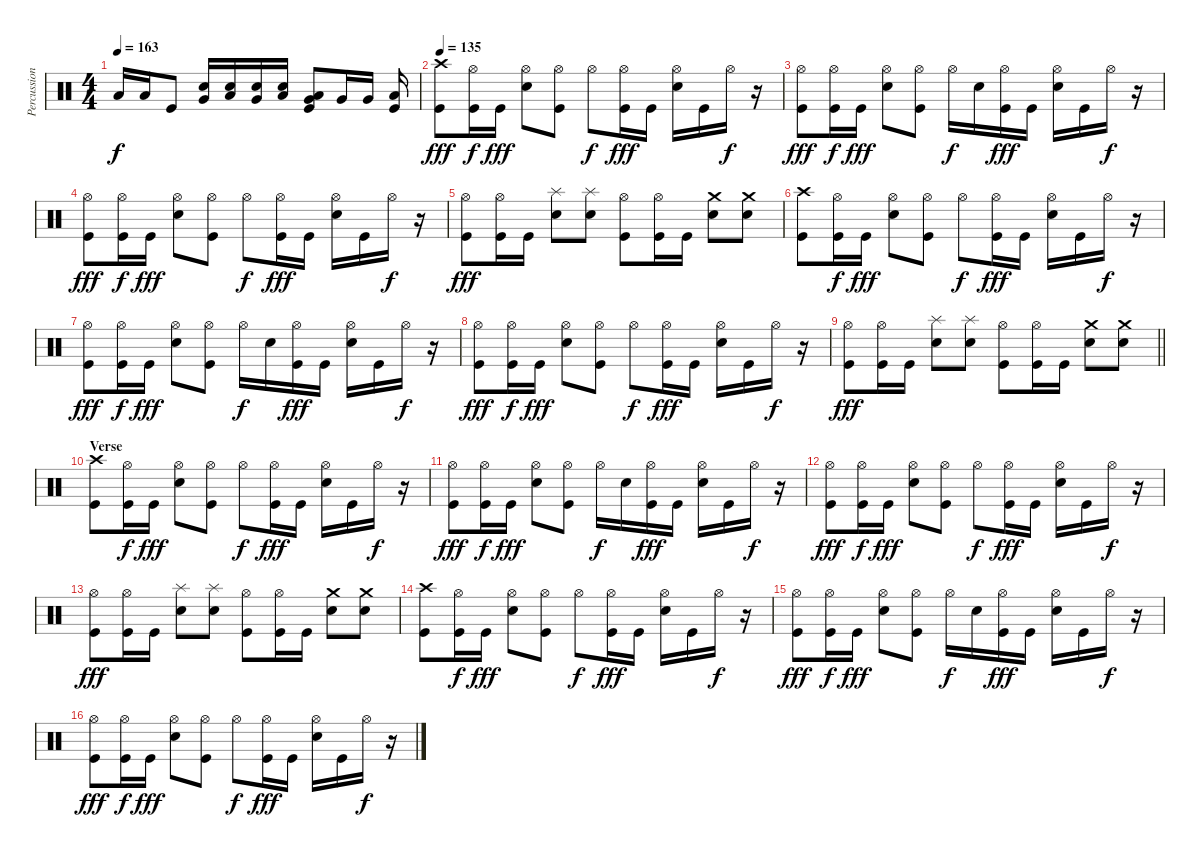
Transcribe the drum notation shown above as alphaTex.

\track ("Percussion/Nicko McBrain" "Percussion") {instrument percussion}
\staff {score}
\articulation defaults
\ts (4 4)
\tempo 163
\clef neutral
\ks c "Low Floor Tom (hit)".16{dy f} "Low Floor Tom (hit)".16 "Kick (hit)".8
("Electric Snare (hit)" "Very Low Tom (hit)").16 ("Electric Snare (hit)" "Low Floor Tom (hit)").16 ("Snare (hit) 2" "Very Low Tom (hit)").16 ("Snare (hit) 2" "Low Floor Tom (hit)").16 ("Low Floor Tom (hit)" "Very Low Tom (hit)" "Kick (hit)").8 "Very Low Tom (hit)".16 "Very Low Tom (hit)".16 ("Low Floor Tom (hit)" "Kick (hit)").16 |
\tempo 135
("Crash high (hit)" "Kick (hit)").8{dy fff} ("Hi-Hat (open)" "Kick (hit)").16{dy f} "Kick (hit)".16{dy fff} ("Hi-Hat (open)" "Electric Snare (hit)").8 ("Hi-Hat (open)" "Kick (hit)").8 "Hi-Hat (open)".8{dy f} ("Hi-Hat (open)" "Kick (hit)").16{dy fff} "Kick (hit)".16 ("Hi-Hat (open)" "Electric Snare (hit)").16 "Kick (hit)".16 "Hi-Hat (open)".16{dy f} r.16 |
("Hi-Hat (open)" "Kick (hit)").8{dy fff} ("Hi-Hat (open)" "Kick (hit)").16{dy f} "Kick (hit)".16{dy fff} ("Hi-Hat (open)" "Electric Snare (hit)").8 ("Hi-Hat (open)" "Kick (hit)").8 "Hi-Hat (open)".16{dy f} "Electric Snare (hit)".16 ("Hi-Hat (open)" "Kick (hit)").16{dy fff} "Kick (hit)".16 ("Hi-Hat (open)" "Electric Snare (hit)").16 "Kick (hit)".16 "Hi-Hat (open)".16{dy f} r.16 |
("Hi-Hat (open)" "Kick (hit)").8{dy fff} ("Hi-Hat (open)" "Kick (hit)").16{dy f} "Kick (hit)".16{dy fff} ("Hi-Hat (open)" "Electric Snare (hit)").8 ("Hi-Hat (open)" "Kick (hit)").8 "Hi-Hat (open)".8{dy f} ("Hi-Hat (open)" "Kick (hit)").16{dy fff} "Kick (hit)".16 ("Hi-Hat (open)" "Electric Snare (hit)").16 "Kick (hit)".16 "Hi-Hat (open)".16{dy f} r.16 |
("Hi-Hat (open)" "Kick (hit)").8{dy fff} ("Hi-Hat (open)" "Kick (hit)").16 "Kick (hit)".16 ("Splash (hit)" "Electric Snare (hit)").8 ("Splash (hit)" "Electric Snare (hit)").8 ("Hi-Hat (open)" "Kick (hit)").8 ("Hi-Hat (open)" "Kick (hit)").16 "Kick (hit)".16 ("Crash medium (hit)" "Electric Snare (hit)").8 ("Crash medium (hit)" "Electric Snare (hit)").8 |
("Crash high (hit)" "Kick (hit)").8 ("Hi-Hat (open)" "Kick (hit)").16{dy f} "Kick (hit)".16{dy fff} ("Hi-Hat (open)" "Electric Snare (hit)").8 ("Hi-Hat (open)" "Kick (hit)").8 "Hi-Hat (open)".8{dy f} ("Hi-Hat (open)" "Kick (hit)").16{dy fff} "Kick (hit)".16 ("Hi-Hat (open)" "Electric Snare (hit)").16 "Kick (hit)".16 "Hi-Hat (open)".16{dy f} r.16 |
("Hi-Hat (open)" "Kick (hit)").8{dy fff} ("Hi-Hat (open)" "Kick (hit)").16{dy f} "Kick (hit)".16{dy fff} ("Hi-Hat (open)" "Electric Snare (hit)").8 ("Hi-Hat (open)" "Kick (hit)").8 "Hi-Hat (open)".16{dy f} "Electric Snare (hit)".16 ("Hi-Hat (open)" "Kick (hit)").16{dy fff} "Kick (hit)".16 ("Hi-Hat (open)" "Electric Snare (hit)").16 "Kick (hit)".16 "Hi-Hat (open)".16{dy f} r.16 |
("Hi-Hat (open)" "Kick (hit)").8{dy fff} ("Hi-Hat (open)" "Kick (hit)").16{dy f} "Kick (hit)".16{dy fff} ("Hi-Hat (open)" "Electric Snare (hit)").8 ("Hi-Hat (open)" "Kick (hit)").8 "Hi-Hat (open)".8{dy f} ("Hi-Hat (open)" "Kick (hit)").16{dy fff} "Kick (hit)".16 ("Hi-Hat (open)" "Electric Snare (hit)").16 "Kick (hit)".16 "Hi-Hat (open)".16{dy f} r.16 |
\barLineRight lightlight
("Hi-Hat (open)" "Kick (hit)").8{dy fff} ("Hi-Hat (open)" "Kick (hit)").16 "Kick (hit)".16 ("Splash (hit)" "Electric Snare (hit)").8 ("Splash (hit)" "Electric Snare (hit)").8 ("Hi-Hat (open)" "Kick (hit)").8 ("Hi-Hat (open)" "Kick (hit)").16 "Kick (hit)".16 ("Crash medium (hit)" "Electric Snare (hit)").8 ("Crash medium (hit)" "Electric Snare (hit)").8 |
\section ("" "Verse")
("Crash high (hit)" "Kick (hit)").8 ("Hi-Hat (open)" "Kick (hit)").16{dy f} "Kick (hit)".16{dy fff} ("Hi-Hat (open)" "Electric Snare (hit)").8 ("Hi-Hat (open)" "Kick (hit)").8 "Hi-Hat (open)".8{dy f} ("Hi-Hat (open)" "Kick (hit)").16{dy fff} "Kick (hit)".16 ("Hi-Hat (open)" "Electric Snare (hit)").16 "Kick (hit)".16 "Hi-Hat (open)".16{dy f} r.16 |
("Hi-Hat (open)" "Kick (hit)").8{dy fff} ("Hi-Hat (open)" "Kick (hit)").16{dy f} "Kick (hit)".16{dy fff} ("Hi-Hat (open)" "Electric Snare (hit)").8 ("Hi-Hat (open)" "Kick (hit)").8 "Hi-Hat (open)".16{dy f} "Electric Snare (hit)".16 ("Hi-Hat (open)" "Kick (hit)").16{dy fff} "Kick (hit)".16 ("Hi-Hat (open)" "Electric Snare (hit)").16 "Kick (hit)".16 "Hi-Hat (open)".16{dy f} r.16 |
("Hi-Hat (open)" "Kick (hit)").8{dy fff} ("Hi-Hat (open)" "Kick (hit)").16{dy f} "Kick (hit)".16{dy fff} ("Hi-Hat (open)" "Electric Snare (hit)").8 ("Hi-Hat (open)" "Kick (hit)").8 "Hi-Hat (open)".8{dy f} ("Hi-Hat (open)" "Kick (hit)").16{dy fff} "Kick (hit)".16 ("Hi-Hat (open)" "Electric Snare (hit)").16 "Kick (hit)".16 "Hi-Hat (open)".16{dy f} r.16 |
("Hi-Hat (open)" "Kick (hit)").8{dy fff} ("Hi-Hat (open)" "Kick (hit)").16 "Kick (hit)".16 ("Splash (hit)" "Electric Snare (hit)").8 ("Splash (hit)" "Electric Snare (hit)").8 ("Hi-Hat (open)" "Kick (hit)").8 ("Hi-Hat (open)" "Kick (hit)").16 "Kick (hit)".16 ("Crash medium (hit)" "Electric Snare (hit)").8 ("Crash medium (hit)" "Electric Snare (hit)").8 |
("Crash high (hit)" "Kick (hit)").8 ("Hi-Hat (open)" "Kick (hit)").16{dy f} "Kick (hit)".16{dy fff} ("Hi-Hat (open)" "Electric Snare (hit)").8 ("Hi-Hat (open)" "Kick (hit)").8 "Hi-Hat (open)".8{dy f} ("Hi-Hat (open)" "Kick (hit)").16{dy fff} "Kick (hit)".16 ("Hi-Hat (open)" "Electric Snare (hit)").16 "Kick (hit)".16 "Hi-Hat (open)".16{dy f} r.16 |
("Hi-Hat (open)" "Kick (hit)").8{dy fff} ("Hi-Hat (open)" "Kick (hit)").16{dy f} "Kick (hit)".16{dy fff} ("Hi-Hat (open)" "Electric Snare (hit)").8 ("Hi-Hat (open)" "Kick (hit)").8 "Hi-Hat (open)".16{dy f} "Electric Snare (hit)".16 ("Hi-Hat (open)" "Kick (hit)").16{dy fff} "Kick (hit)".16 ("Hi-Hat (open)" "Electric Snare (hit)").16 "Kick (hit)".16 "Hi-Hat (open)".16{dy f} r.16 |
("Hi-Hat (open)" "Kick (hit)").8{dy fff} ("Hi-Hat (open)" "Kick (hit)").16{dy f} "Kick (hit)".16{dy fff} ("Hi-Hat (open)" "Electric Snare (hit)").8 ("Hi-Hat (open)" "Kick (hit)").8 "Hi-Hat (open)".8{dy f} ("Hi-Hat (open)" "Kick (hit)").16{dy fff} "Kick (hit)".16 ("Hi-Hat (open)" "Electric Snare (hit)").16 "Kick (hit)".16 "Hi-Hat (open)".16{dy f} r.16
